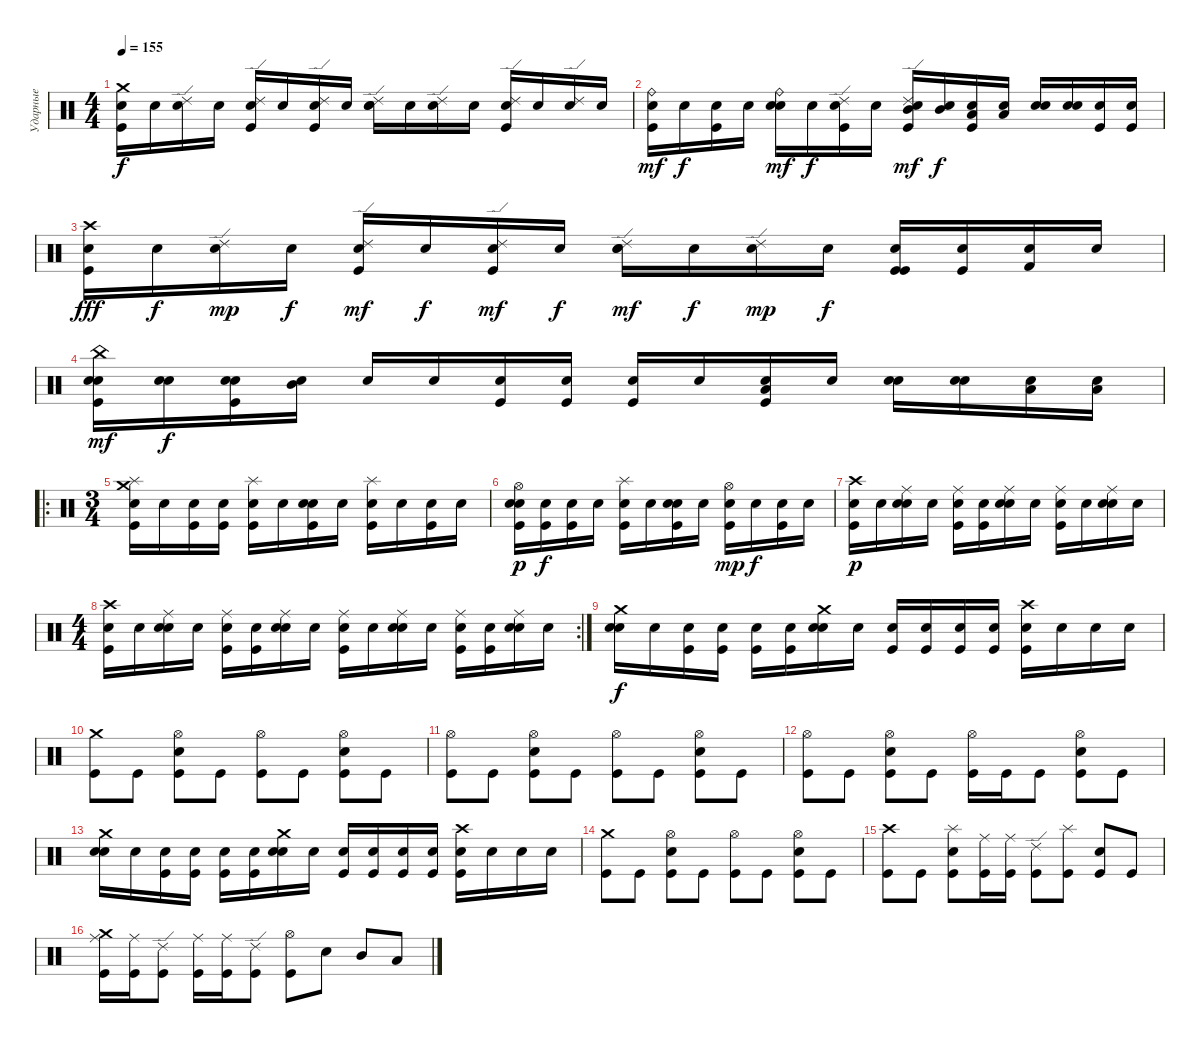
\track ("Ударные" "Ударные") {instrument percussion}
\staff {score}
\articulation defaults
\ts (4 4)
\tempo 155
\clef neutral
\ks c
("Crash medium (hit)" "Kick (hit)" "Snare (hit)").16{dy f} "Snare (hit)".16 ("Ride (edge) 2" "Snare (hit)").16 "Snare (hit)".16 ("Ride (edge) 2" "Kick (hit)" "Snare (hit)").16 "Snare (hit)".16 ("Ride (edge) 2" "Kick (hit)" "Snare (hit)").16 "Snare (hit)".16 ("Snare (hit) 2" "Ride (edge) 2" "Snare (hit)").16 "Snare (hit)".16 ("Ride (edge) 2" "Snare (hit)").16 "Snare (hit)".16 ("Kick (hit)" "Ride (edge) 2" "Snare (hit)").16 "Snare (hit)".16 ("Ride (edge) 2" "Snare (hit)").16 "Snare (hit)".16 |
("Ride (bell)" "Kick (hit)" "Snare (hit)").16{dy mf} "Snare (hit)".16{dy f} ("Kick (hit)" "Snare (hit)").16 "Snare (hit)".16 ("Snare (hit) 2" "Ride (bell)" "Snare (hit)").16{dy mf} "Snare (hit)".16{dy f} ("Ride (edge) 2" "Kick (hit)" "Snare (hit)").16 "Snare (hit)".16 ("Mid Tom (hit)" "Ride (edge) 2" "Kick (hit)" "Snare (hit)").16{dy mf} ("Mid Tom (hit)" "Snare (hit)").16{dy f} ("Low Tom (hit)" "Kick (hit)" "Snare (hit)").16 ("Low Tom (hit)" "Snare (hit)").16 ("Snare (hit) 2" "Snare (hit)").16 ("Snare (hit) 2" "Snare (hit)").16 ("Kick (hit)" "Snare (hit)").16 ("Kick (hit)" "Snare (hit)").16 |
("Crash high (hit)" "Kick (hit)" "Snare (hit)").16{dy fff} "Snare (hit)".16{dy f} ("Ride (edge) 2" "Snare (hit)").16{dy mp} "Snare (hit)".16{dy f} ("Ride (edge) 2" "Kick (hit)" "Snare (hit)").16{dy mf} "Snare (hit)".16{dy f} ("Ride (edge) 2" "Kick (hit)" "Snare (hit)").16{dy mf} "Snare (hit)".16{dy f} ("Snare (hit) 2" "Ride (edge) 2" "Snare (hit)").16{dy mf} "Snare (hit)".16{dy f} ("Ride (edge) 2" "Snare (hit)").16{dy mp} "Snare (hit)".16{dy f} ("Kick (hit)" "Kick (hit)" "Snare (hit)").16 ("Kick (hit)" "Snare (hit)").16 ("Kick (hit) 2" "Snare (hit)").16 "Snare (hit)".16 |
("Snare (hit) 2" "China (hit)" "Kick (hit)" "Snare (hit)").16{dy mf} ("Snare (hit) 2" "Snare (hit)").16{dy f} ("Snare (hit) 2" "Kick (hit)" "Snare (hit)").16 ("Mid Tom (hit)" "Snare (hit)").16 "Snare (hit)".16 "Snare (hit)".16 ("Kick (hit)" "Snare (hit)").16 ("Kick (hit)" "Snare (hit)").16 ("Kick (hit)" "Snare (hit)").16 "Snare (hit)".16 ("Low Tom (hit)" "Kick (hit)" "Snare (hit)").16 "Snare (hit)".16 ("Snare (hit) 2" "Snare (hit)").16 ("Snare (hit) 2" "Snare (hit)").16 ("Low Tom (hit)" "Snare (hit)").16 ("Low Tom (hit)" "Snare (hit)").16 |
\ro
\ts (3 4)
("Crash medium (hit)" "Kick (hit)" "Splash (hit)" "Snare (hit)").16 "Snare (hit)".16 ("Kick (hit)" "Snare (hit)").16 ("Kick (hit)" "Snare (hit)").16 ("Kick (hit)" "Splash (hit)" "Snare (hit)").16 "Snare (hit)".16 ("Snare (hit) 2" "Kick (hit)" "Snare (hit)").16 "Snare (hit)".16 ("Kick (hit)" "Splash (hit)" "Snare (hit)").16 "Snare (hit)".16 ("Kick (hit)" "Snare (hit)").16 "Snare (hit)".16 |
("Snare (hit) 2" "Kick (hit)" "Hi-Hat (open)" "Snare (hit)").16{dy p} ("Kick (hit)" "Snare (hit)").16{dy f} ("Kick (hit)" "Snare (hit)").16 "Snare (hit)".16 ("Kick (hit)" "Splash (hit)" "Snare (hit)").16 "Snare (hit)".16 ("Snare (hit) 2" "Kick (hit)" "Snare (hit)").16 "Snare (hit)".16 ("Kick (hit)" "Hi-Hat (open)" "Snare (hit)").16{dy mp} "Snare (hit)".16{dy f} ("Kick (hit)" "Snare (hit)").16 "Snare (hit)".16 |
("Crash high (hit)" "Kick (hit)" "Snare (hit)").16{dy p} "Snare (hit)".16 ("Ride (middle)" "Snare (hit) 2" "Snare (hit)").16 "Snare (hit)".16 ("Ride (middle)" "Kick (hit)" "Snare (hit)").16 ("Kick (hit)" "Snare (hit)").16 ("Ride (middle)" "Snare (hit) 2" "Snare (hit)").16 "Snare (hit)".16 ("Ride (middle)" "Kick (hit)" "Snare (hit)").16 "Snare (hit)".16 ("Ride (middle)" "Snare (hit) 2" "Snare (hit)").16 "Snare (hit)".16 |
\rc 2
\ts (4 4)
("Crash high (hit)" "Kick (hit)" "Snare (hit)").16 "Snare (hit)".16 ("Ride (middle)" "Snare (hit) 2" "Snare (hit)").16 "Snare (hit)".16 ("Ride (middle)" "Kick (hit)" "Snare (hit)").16 ("Kick (hit)" "Snare (hit)").16 ("Ride (middle)" "Snare (hit) 2" "Snare (hit)").16 "Snare (hit)".16 ("Ride (middle)" "Kick (hit)" "Snare (hit)").16 "Snare (hit)".16 ("Ride (middle)" "Snare (hit) 2" "Snare (hit)").16 "Snare (hit)".16 ("Ride (middle)" "Kick (hit)" "Snare (hit)").16 ("Kick (hit)" "Snare (hit)").16 ("Ride (middle)" "Snare (hit) 2" "Snare (hit)").16 "Snare (hit)".16 |
("Snare (hit) 2" "Crash medium (hit)" "Snare (hit)").16{dy f} "Snare (hit)".16 ("Kick (hit)" "Snare (hit)").16 ("Kick (hit)" "Snare (hit)").16 ("Kick (hit)" "Snare (hit)").16 ("Kick (hit)" "Snare (hit)").16 ("Snare (hit) 2" "Crash medium (hit)" "Snare (hit)").16 "Snare (hit)".16 ("Kick (hit)" "Snare (hit)").16 ("Kick (hit)" "Snare (hit)").16 ("Kick (hit)" "Snare (hit)").16 ("Kick (hit)" "Snare (hit)").16 ("Crash high (hit)" "Kick (hit)" "Snare (hit)").16 "Snare (hit)".16 "Snare (hit)".16 "Snare (hit)".16 |
("Crash medium (hit)" "Kick (hit)").8 "Kick (hit)".8 ("Snare (hit) 2" "Hi-Hat (open)" "Kick (hit)").8 "Kick (hit)".8 ("Hi-Hat (open)" "Kick (hit)").8 "Kick (hit)".8 ("Snare (hit) 2" "Hi-Hat (open)" "Kick (hit)").8 "Kick (hit)".8 |
("Hi-Hat (open)" "Kick (hit)").8 "Kick (hit)".8 ("Snare (hit) 2" "Hi-Hat (open)" "Kick (hit)").8 "Kick (hit)".8 ("Hi-Hat (open)" "Kick (hit)").8 "Kick (hit)".8 ("Snare (hit) 2" "Hi-Hat (open)" "Kick (hit)").8 "Kick (hit)".8 |
("Hi-Hat (open)" "Kick (hit)").8 "Kick (hit)".8 ("Snare (hit) 2" "Hi-Hat (open)" "Kick (hit)").8 "Kick (hit)".8 ("Hi-Hat (open)" "Kick (hit)").16 "Kick (hit)".16 "Kick (hit)".8 ("Snare (hit) 2" "Hi-Hat (open)" "Kick (hit)").8 "Kick (hit)".8 |
("Snare (hit) 2" "Crash medium (hit)" "Snare (hit)").16 "Snare (hit)".16 ("Kick (hit)" "Snare (hit)").16 ("Kick (hit)" "Snare (hit)").16 ("Kick (hit)" "Snare (hit)").16 ("Kick (hit)" "Snare (hit)").16 ("Snare (hit) 2" "Crash medium (hit)" "Snare (hit)").16 "Snare (hit)".16 ("Kick (hit)" "Snare (hit)").16 ("Kick (hit)" "Snare (hit)").16 ("Kick (hit)" "Snare (hit)").16 ("Kick (hit)" "Snare (hit)").16 ("Crash high (hit)" "Kick (hit)" "Snare (hit)").16 "Snare (hit)".16 "Snare (hit)".16 "Snare (hit)".16 |
("Crash medium (hit)" "Kick (hit)").8 "Kick (hit)".8 ("Snare (hit) 2" "Hi-Hat (open)" "Kick (hit)").8 "Kick (hit)".8 ("Hi-Hat (open)" "Kick (hit)").8 "Kick (hit)".8 ("Snare (hit) 2" "Hi-Hat (open)" "Kick (hit)").8 "Kick (hit)".8 |
("Crash high (hit)" "Kick (hit)").8 "Kick (hit)".8 ("Snare (hit) 2" "Splash (hit)" "Kick (hit)").8 ("Ride (middle)" "Kick (hit)").16 ("Ride (middle)" "Kick (hit)").16 ("Ride (edge) 2" "Kick (hit)").8 ("Splash (hit)" "Kick (hit)").8 ("Snare (hit) 2" "Kick (hit)").8 "Kick (hit)".8 |
("Crash medium (hit)" "Ride (middle)" "Kick (hit)").16 ("Ride (middle)" "Kick (hit)").16 ("Ride (edge) 2" "Kick (hit)").8 ("Ride (middle)" "Kick (hit)").16 ("Ride (middle)" "Kick (hit)").16 ("Ride (edge) 2" "Kick (hit)").8 ("Hi-Hat (open)" "Kick (hit)").8 "Snare (hit) 2".8 "Mid Tom (hit)".8 "Low Tom (hit)".8
